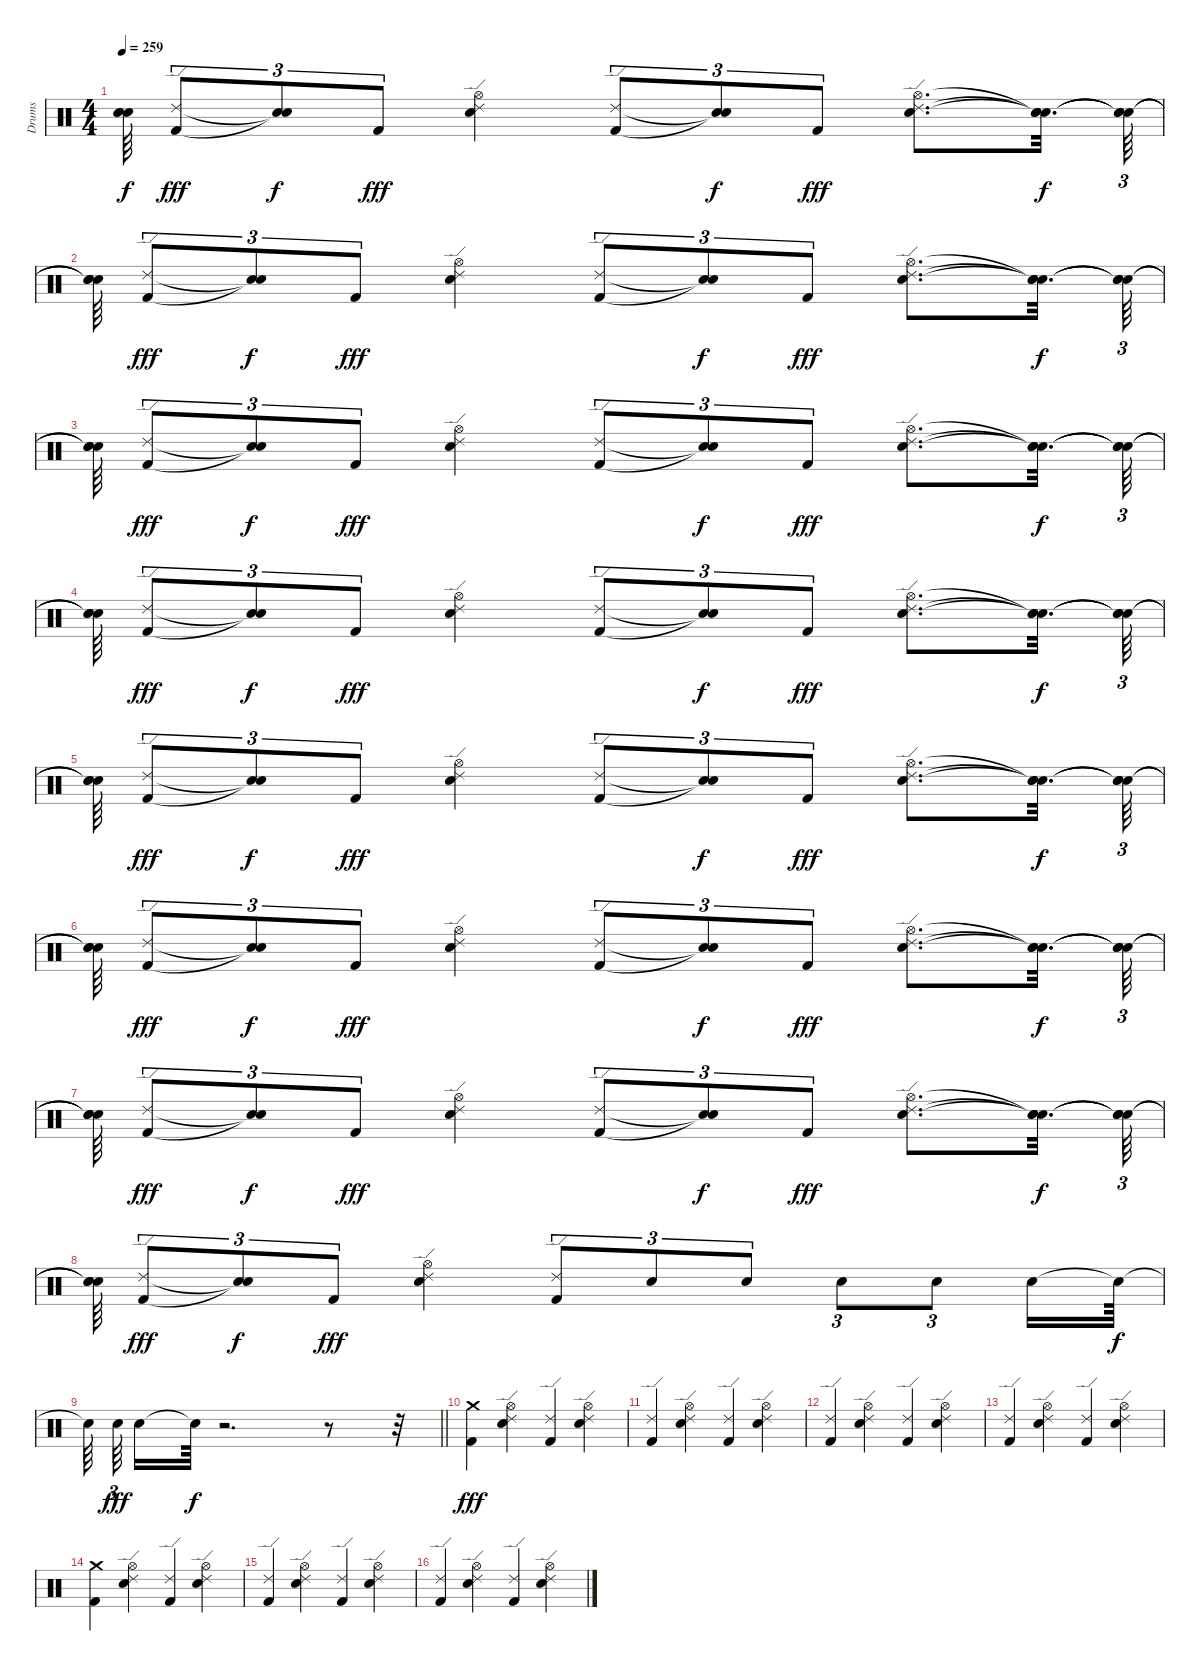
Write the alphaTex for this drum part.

\track ("Drums" "Drums") {instrument percussion}
\staff {score}
\articulation defaults
\ts (4 4)
\tempo 259
\clef neutral
\ks c
("Snare (hit)"{t} "Snare (hit)"{t} "Snare (hit)"{t}).64{dy f} ("Kick (hit) 2" "Ride (edge) 2").8{tu (3 2) dy fff} ("Snare (hit)"{t} "Snare (hit)"{t}).8{tu (3 2) dy f} "Kick (hit) 2".8{tu (3 2) dy fff} ("Electric Snare (hit)" "Ride (edge) 2" "Hi-Hat (open)").4 ("Kick (hit) 2" "Ride (edge) 2").8{tu (3 2)} ("Snare (hit)"{t} "Snare (hit)"{t}).8{tu (3 2) dy f} "Kick (hit) 2".8{tu (3 2) dy fff} ("Electric Snare (hit)" "Ride (edge) 2" "Hi-Hat (open)").8{d} ("Snare (hit)"{t} "Snare (hit)"{t} "Snare (hit)"{t}).32{d dy f} ("Snare (hit)"{t} "Snare (hit)"{t} "Snare (hit)"{t}).64{tu (3 2)} |
("Snare (hit)"{t} "Snare (hit)"{t} "Snare (hit)"{t}).64 ("Kick (hit) 2" "Ride (edge) 2").8{tu (3 2) dy fff} ("Snare (hit)"{t} "Snare (hit)"{t}).8{tu (3 2) dy f} "Kick (hit) 2".8{tu (3 2) dy fff} ("Electric Snare (hit)" "Ride (edge) 2" "Hi-Hat (open)").4 ("Kick (hit) 2" "Ride (edge) 2").8{tu (3 2)} ("Snare (hit)"{t} "Snare (hit)"{t}).8{tu (3 2) dy f} "Kick (hit) 2".8{tu (3 2) dy fff} ("Electric Snare (hit)" "Ride (edge) 2" "Hi-Hat (open)").8{d} ("Snare (hit)"{t} "Snare (hit)"{t} "Snare (hit)"{t}).32{d dy f} ("Snare (hit)"{t} "Snare (hit)"{t} "Snare (hit)"{t}).64{tu (3 2)} |
("Snare (hit)"{t} "Snare (hit)"{t} "Snare (hit)"{t}).64 ("Kick (hit) 2" "Ride (edge) 2").8{tu (3 2) dy fff} ("Snare (hit)"{t} "Snare (hit)"{t}).8{tu (3 2) dy f} "Kick (hit) 2".8{tu (3 2) dy fff} ("Electric Snare (hit)" "Ride (edge) 2" "Hi-Hat (open)").4 ("Kick (hit) 2" "Ride (edge) 2").8{tu (3 2)} ("Snare (hit)"{t} "Snare (hit)"{t}).8{tu (3 2) dy f} "Kick (hit) 2".8{tu (3 2) dy fff} ("Electric Snare (hit)" "Ride (edge) 2" "Hi-Hat (open)").8{d} ("Snare (hit)"{t} "Snare (hit)"{t} "Snare (hit)"{t}).32{d dy f} ("Snare (hit)"{t} "Snare (hit)"{t} "Snare (hit)"{t}).64{tu (3 2)} |
("Snare (hit)"{t} "Snare (hit)"{t} "Snare (hit)"{t}).64 ("Kick (hit) 2" "Ride (edge) 2").8{tu (3 2) dy fff} ("Snare (hit)"{t} "Snare (hit)"{t}).8{tu (3 2) dy f} "Kick (hit) 2".8{tu (3 2) dy fff} ("Electric Snare (hit)" "Ride (edge) 2" "Hi-Hat (open)").4 ("Kick (hit) 2" "Ride (edge) 2").8{tu (3 2)} ("Snare (hit)"{t} "Snare (hit)"{t}).8{tu (3 2) dy f} "Kick (hit) 2".8{tu (3 2) dy fff} ("Electric Snare (hit)" "Ride (edge) 2" "Hi-Hat (open)").8{d} ("Snare (hit)"{t} "Snare (hit)"{t} "Snare (hit)"{t}).32{d dy f} ("Snare (hit)"{t} "Snare (hit)"{t} "Snare (hit)"{t}).64{tu (3 2)} |
("Snare (hit)"{t} "Snare (hit)"{t} "Snare (hit)"{t}).64 ("Kick (hit) 2" "Ride (edge) 2").8{tu (3 2) dy fff} ("Snare (hit)"{t} "Snare (hit)"{t}).8{tu (3 2) dy f} "Kick (hit) 2".8{tu (3 2) dy fff} ("Electric Snare (hit)" "Ride (edge) 2" "Hi-Hat (open)").4 ("Kick (hit) 2" "Ride (edge) 2").8{tu (3 2)} ("Snare (hit)"{t} "Snare (hit)"{t}).8{tu (3 2) dy f} "Kick (hit) 2".8{tu (3 2) dy fff} ("Electric Snare (hit)" "Ride (edge) 2" "Hi-Hat (open)").8{d} ("Snare (hit)"{t} "Snare (hit)"{t} "Snare (hit)"{t}).32{d dy f} ("Snare (hit)"{t} "Snare (hit)"{t} "Snare (hit)"{t}).64{tu (3 2)} |
("Snare (hit)"{t} "Snare (hit)"{t} "Snare (hit)"{t}).64 ("Kick (hit) 2" "Ride (edge) 2").8{tu (3 2) dy fff} ("Snare (hit)"{t} "Snare (hit)"{t}).8{tu (3 2) dy f} "Kick (hit) 2".8{tu (3 2) dy fff} ("Electric Snare (hit)" "Ride (edge) 2" "Hi-Hat (open)").4 ("Kick (hit) 2" "Ride (edge) 2").8{tu (3 2)} ("Snare (hit)"{t} "Snare (hit)"{t}).8{tu (3 2) dy f} "Kick (hit) 2".8{tu (3 2) dy fff} ("Electric Snare (hit)" "Ride (edge) 2" "Hi-Hat (open)").8{d} ("Snare (hit)"{t} "Snare (hit)"{t} "Snare (hit)"{t}).32{d dy f} ("Snare (hit)"{t} "Snare (hit)"{t} "Snare (hit)"{t}).64{tu (3 2)} |
("Snare (hit)"{t} "Snare (hit)"{t} "Snare (hit)"{t}).64 ("Kick (hit) 2" "Ride (edge) 2").8{tu (3 2) dy fff} ("Snare (hit)"{t} "Snare (hit)"{t}).8{tu (3 2) dy f} "Kick (hit) 2".8{tu (3 2) dy fff} ("Electric Snare (hit)" "Ride (edge) 2" "Hi-Hat (open)").4 ("Kick (hit) 2" "Ride (edge) 2").8{tu (3 2)} ("Snare (hit)"{t} "Snare (hit)"{t}).8{tu (3 2) dy f} "Kick (hit) 2".8{tu (3 2) dy fff} ("Electric Snare (hit)" "Ride (edge) 2" "Hi-Hat (open)").8{d} ("Snare (hit)"{t} "Snare (hit)"{t} "Snare (hit)"{t}).32{d dy f} ("Snare (hit)"{t} "Snare (hit)"{t} "Snare (hit)"{t}).64{tu (3 2)} |
("Snare (hit)"{t} "Snare (hit)"{t} "Snare (hit)"{t}).64 ("Kick (hit) 2" "Ride (edge) 2").8{tu (3 2) dy fff} ("Snare (hit)"{t} "Snare (hit)"{t}).8{tu (3 2) dy f} "Kick (hit) 2".8{tu (3 2) dy fff} ("Electric Snare (hit)" "Ride (edge) 2" "Hi-Hat (open)").4 ("Kick (hit) 2" "Ride (edge) 2").8{tu (3 2)} "Electric Snare (hit)".8{tu (3 2)} "Electric Snare (hit)".8{tu (3 2)} "Electric Snare (hit)".8{tu (3 2)} "Electric Snare (hit)".8{tu (3 2)} "Electric Snare (hit)".16 "Snare (hit)"{t}.64{dy f} |
\barLineRight lightlight "Snare (hit)"{t}.64{beam splitsecondary} "Electric Snare (hit)".64{tu (3 2) dy fff beam splitsecondary} "Electric Snare (hit)".16 "Snare (hit)"{t}.64{dy f}
r.2{d} r.8 r.32 |
("Kick (hit) 2" "Crash medium (hit)").4{dy fff} ("Electric Snare (hit)" "Ride (edge) 2" "Hi-Hat (open)").4 ("Kick (hit) 2" "Ride (edge) 2").4 ("Electric Snare (hit)" "Ride (edge) 2" "Hi-Hat (open)").4 |
("Kick (hit) 2" "Ride (edge) 2").4 ("Electric Snare (hit)" "Ride (edge) 2" "Hi-Hat (open)").4 ("Kick (hit) 2" "Ride (edge) 2").4 ("Electric Snare (hit)" "Ride (edge) 2" "Hi-Hat (open)").4 |
("Kick (hit) 2" "Ride (edge) 2").4 ("Electric Snare (hit)" "Ride (edge) 2" "Hi-Hat (open)").4 ("Kick (hit) 2" "Ride (edge) 2").4 ("Electric Snare (hit)" "Ride (edge) 2" "Hi-Hat (open)").4 |
("Kick (hit) 2" "Ride (edge) 2").4 ("Electric Snare (hit)" "Ride (edge) 2" "Hi-Hat (open)").4 ("Kick (hit) 2" "Ride (edge) 2").4 ("Electric Snare (hit)" "Ride (edge) 2" "Hi-Hat (open)").4 |
("Kick (hit) 2" "Crash medium (hit)").4 ("Electric Snare (hit)" "Ride (edge) 2" "Hi-Hat (open)").4 ("Kick (hit) 2" "Ride (edge) 2").4 ("Electric Snare (hit)" "Ride (edge) 2" "Hi-Hat (open)").4 |
("Kick (hit) 2" "Ride (edge) 2").4 ("Electric Snare (hit)" "Ride (edge) 2" "Hi-Hat (open)").4 ("Kick (hit) 2" "Ride (edge) 2").4 ("Electric Snare (hit)" "Ride (edge) 2" "Hi-Hat (open)").4 |
("Kick (hit) 2" "Ride (edge) 2").4 ("Electric Snare (hit)" "Ride (edge) 2" "Hi-Hat (open)").4 ("Kick (hit) 2" "Ride (edge) 2").4 ("Electric Snare (hit)" "Ride (edge) 2" "Hi-Hat (open)").4
